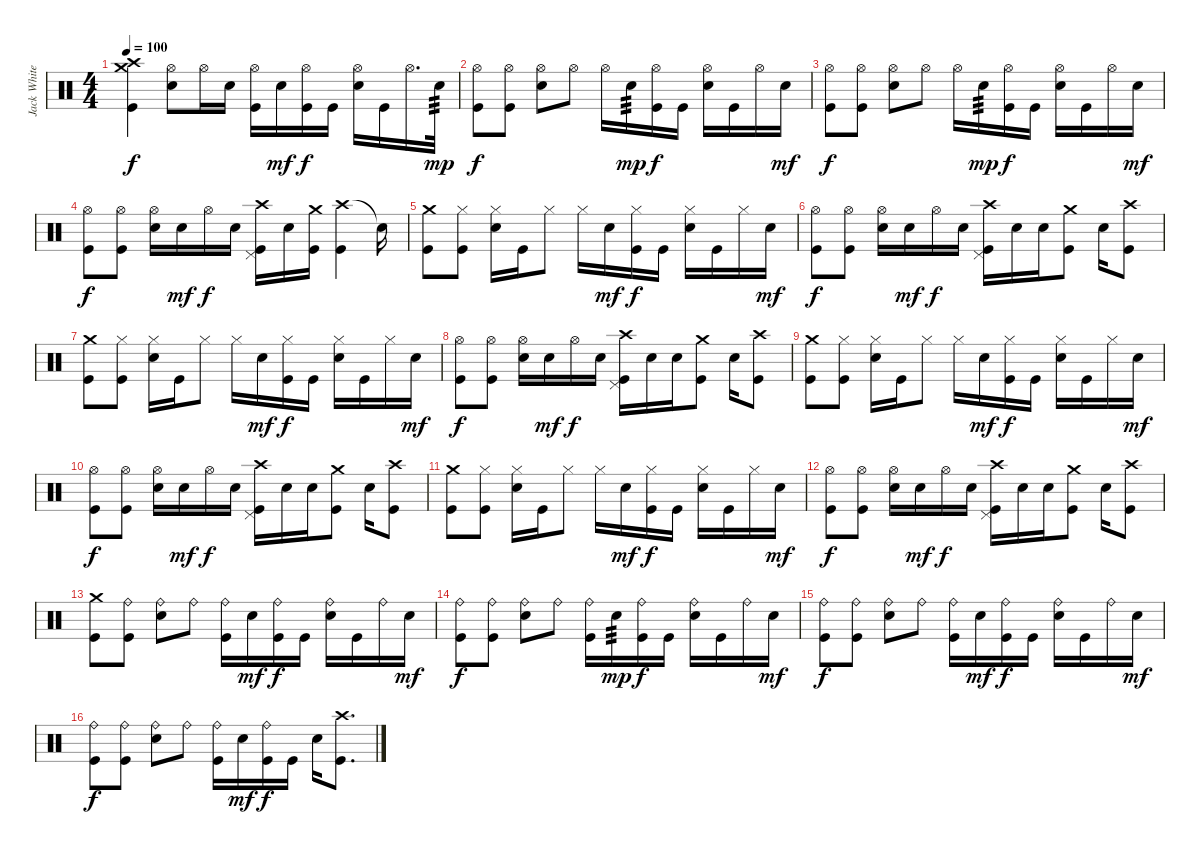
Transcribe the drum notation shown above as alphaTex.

\track ("Jack White" "Jack White") {instrument percussion}
\staff
\articulation defaults
\ts (4 4)
\tempo 100
\clef neutral
\ks c
("Crash medium (hit)" "Crash high (hit)" "Kick (hit)").4{dy f} ("Hi-Hat (open)" "Snare (hit) 2").8 "Hi-Hat (open)".16 "Snare (hit) 2".16 ("Hi-Hat (open)" "Kick (hit)").16 "Snare (hit) 2".16{dy mf} ("Hi-Hat (open)" "Kick (hit)").16{dy f} "Kick (hit)".16 ("Hi-Hat (open)" "Snare (hit) 2").16 "Kick (hit)".16 "Hi-Hat (open)".16{d} "Snare (hit) 2".32{tp 3 dy mp} |
("Hi-Hat (open)" "Kick (hit)").8{dy f} ("Hi-Hat (open)" "Kick (hit)").8 ("Hi-Hat (open)" "Snare (hit) 2").8 "Hi-Hat (open)".8 "Hi-Hat (open)".16 "Snare (hit) 2".16{tp 3 dy mp} ("Hi-Hat (open)" "Kick (hit)").16{dy f} "Kick (hit)".16 ("Hi-Hat (open)" "Snare (hit) 2").16 "Kick (hit)".16 "Hi-Hat (open)".16 "Snare (hit) 2".16{dy mf} |
("Hi-Hat (open)" "Kick (hit)").8{dy f} ("Hi-Hat (open)" "Kick (hit)").8 ("Hi-Hat (open)" "Snare (hit) 2").8 "Hi-Hat (open)".8 "Hi-Hat (open)".16 "Snare (hit) 2".16{tp 3 dy mp} ("Hi-Hat (open)" "Kick (hit)").16{dy f} "Kick (hit)".16 ("Hi-Hat (open)" "Snare (hit) 2").16 "Kick (hit)".16 "Hi-Hat (open)".16 "Snare (hit) 2".16{dy mf} |
("Hi-Hat (open)" "Kick (hit)").8{dy f} ("Hi-Hat (open)" "Kick (hit)").8 ("Hi-Hat (open)" "Snare (hit) 2").16 "Snare (hit) 2".16{dy mf} "Hi-Hat (open)".16{dy f} "Snare (hit) 2".16 ("Crash high (hit)" "Pedal Hi-Hat (hit)" "Kick (hit)").16 "Snare (hit) 2".16 ("Crash medium (hit)" "Kick (hit)").16 ("Crash high (hit)" "Kick (hit)").4 "Snare (hit)"{t}.16 |
("Crash medium (hit)" "Kick (hit)").8 ("Hi-Hat (closed)" "Kick (hit)").8 ("Hi-Hat (closed)" "Snare (hit) 2").16 "Kick (hit)".16 "Hi-Hat (closed)".8 "Hi-Hat (closed)".16 "Snare (hit) 2".16{dy mf} ("Hi-Hat (closed)" "Kick (hit)").16{dy f} "Kick (hit)".16 ("Hi-Hat (closed)" "Snare (hit) 2").16 "Kick (hit)".16 "Hi-Hat (closed)".16 "Snare (hit) 2".16{dy mf} |
("Hi-Hat (open)" "Kick (hit)").8{dy f} ("Hi-Hat (open)" "Kick (hit)").8 ("Hi-Hat (open)" "Snare (hit) 2").16 "Snare (hit) 2".16{dy mf} "Hi-Hat (open)".16{dy f} "Snare (hit) 2".16 ("Crash high (hit)" "Pedal Hi-Hat (hit)" "Kick (hit)").16 "Snare (hit) 2".16 "Snare (hit) 2".16 ("Crash medium (hit)" "Kick (hit)").8 "Snare (hit) 2".16 ("Crash high (hit)" "Kick (hit)").8 |
("Crash medium (hit)" "Kick (hit)").8 ("Hi-Hat (closed)" "Kick (hit)").8 ("Hi-Hat (closed)" "Snare (hit) 2").16 "Kick (hit)".16 "Hi-Hat (closed)".8 "Hi-Hat (closed)".16 "Snare (hit) 2".16{dy mf} ("Hi-Hat (closed)" "Kick (hit)").16{dy f} "Kick (hit)".16 ("Hi-Hat (closed)" "Snare (hit) 2").16 "Kick (hit)".16 "Hi-Hat (closed)".16 "Snare (hit) 2".16{dy mf} |
("Hi-Hat (open)" "Kick (hit)").8{dy f} ("Hi-Hat (open)" "Kick (hit)").8 ("Hi-Hat (open)" "Snare (hit) 2").16 "Snare (hit) 2".16{dy mf} "Hi-Hat (open)".16{dy f} "Snare (hit) 2".16 ("Crash high (hit)" "Pedal Hi-Hat (hit)" "Kick (hit)").16 "Snare (hit) 2".16 "Snare (hit) 2".16 ("Crash medium (hit)" "Kick (hit)").8 "Snare (hit) 2".16 ("Crash high (hit)" "Kick (hit)").8 |
("Crash medium (hit)" "Kick (hit)").8 ("Hi-Hat (closed)" "Kick (hit)").8 ("Hi-Hat (closed)" "Snare (hit) 2").16 "Kick (hit)".16 "Hi-Hat (closed)".8 "Hi-Hat (closed)".16 "Snare (hit) 2".16{dy mf} ("Hi-Hat (closed)" "Kick (hit)").16{dy f} "Kick (hit)".16 ("Hi-Hat (closed)" "Snare (hit) 2").16 "Kick (hit)".16 "Hi-Hat (closed)".16 "Snare (hit) 2".16{dy mf} |
("Hi-Hat (open)" "Kick (hit)").8{dy f} ("Hi-Hat (open)" "Kick (hit)").8 ("Hi-Hat (open)" "Snare (hit) 2").16 "Snare (hit) 2".16{dy mf} "Hi-Hat (open)".16{dy f} "Snare (hit) 2".16 ("Crash high (hit)" "Pedal Hi-Hat (hit)" "Kick (hit)").16 "Snare (hit) 2".16 "Snare (hit) 2".16 ("Crash medium (hit)" "Kick (hit)").8 "Snare (hit) 2".16 ("Crash high (hit)" "Kick (hit)").8 |
("Crash medium (hit)" "Kick (hit)").8 ("Hi-Hat (closed)" "Kick (hit)").8 ("Hi-Hat (closed)" "Snare (hit) 2").16 "Kick (hit)".16 "Hi-Hat (closed)".8 "Hi-Hat (closed)".16 "Snare (hit) 2".16{dy mf} ("Hi-Hat (closed)" "Kick (hit)").16{dy f} "Kick (hit)".16 ("Hi-Hat (closed)" "Snare (hit) 2").16 "Kick (hit)".16 "Hi-Hat (closed)".16 "Snare (hit) 2".16{dy mf} |
("Hi-Hat (open)" "Kick (hit)").8{dy f} ("Hi-Hat (open)" "Kick (hit)").8 ("Hi-Hat (open)" "Snare (hit) 2").16 "Snare (hit) 2".16{dy mf} "Hi-Hat (open)".16{dy f} "Snare (hit) 2".16 ("Crash high (hit)" "Pedal Hi-Hat (hit)" "Kick (hit)").16 "Snare (hit) 2".16 "Snare (hit) 2".16 ("Crash medium (hit)" "Kick (hit)").8 "Snare (hit) 2".16 ("Crash high (hit)" "Kick (hit)").8 |
("Crash medium (hit)" "Kick (hit)").8 ("Ride (bell)" "Kick (hit)").8 ("Ride (bell)" "Snare (hit) 2").8 "Ride (bell)".8 ("Ride (bell)" "Kick (hit)").16 "Snare (hit) 2".16{dy mf} ("Ride (bell)" "Kick (hit)").16{dy f} "Kick (hit)".16 ("Ride (bell)" "Snare (hit) 2").16 "Kick (hit)".16 "Ride (bell)".16 "Snare (hit) 2".16{dy mf} |
("Ride (bell)" "Kick (hit)").8{dy f} ("Ride (bell)" "Kick (hit)").8 ("Ride (bell)" "Snare (hit) 2").8 "Ride (bell)".8 ("Ride (bell)" "Kick (hit)").16 "Snare (hit) 2".16{tp 3 dy mp} ("Ride (bell)" "Kick (hit)").16{dy f} "Kick (hit)".16 ("Ride (bell)" "Snare (hit) 2").16 "Kick (hit)".16 "Ride (bell)".16 "Snare (hit) 2".16{dy mf} |
("Ride (bell)" "Kick (hit)").8{dy f} ("Ride (bell)" "Kick (hit)").8 ("Ride (bell)" "Snare (hit) 2").8 "Ride (bell)".8 ("Ride (bell)" "Kick (hit)").16 "Snare (hit) 2".16{dy mf} ("Ride (bell)" "Kick (hit)").16{dy f} "Kick (hit)".16 ("Ride (bell)" "Snare (hit) 2").16 "Kick (hit)".16 "Ride (bell)".16 "Snare (hit) 2".16{dy mf} |
("Ride (bell)" "Kick (hit)").8{dy f} ("Ride (bell)" "Kick (hit)").8 ("Ride (bell)" "Snare (hit) 2").8 "Ride (bell)".8 ("Ride (bell)" "Kick (hit)").16 "Snare (hit) 2".16{dy mf} ("Ride (bell)" "Kick (hit)").16{dy f} "Kick (hit)".16 "Snare (hit) 2".16 ("Crash high (hit)" "Kick (hit)").8{d}
